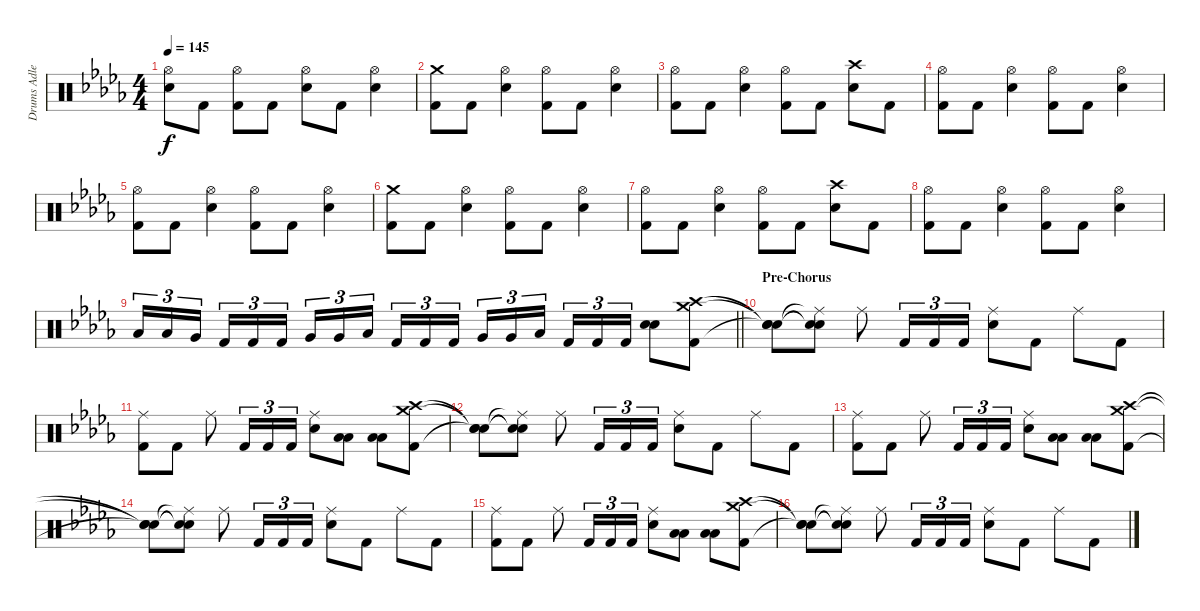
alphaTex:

\track ("Drums Adler" "Drums Adle") {instrument percussion}
\staff {score}
\articulation defaults
\ts (4 4)
\tempo 145
\clef neutral
\ks db
("Hi-Hat (open)" "Snare (hit) 2").8{dy f} "Kick (hit) 2".8 ("Hi-Hat (open)" "Kick (hit) 2").8 "Kick (hit) 2".8 ("Hi-Hat (open)" "Snare (hit) 2").8 "Kick (hit) 2".8 ("Hi-Hat (open)" "Snare (hit) 2").4 |
("Crash medium (hit)" "Kick (hit) 2").8 "Kick (hit) 2".8 ("Hi-Hat (open)" "Snare (hit) 2").4 ("Hi-Hat (open)" "Kick (hit) 2").8 "Kick (hit) 2".8 ("Hi-Hat (open)" "Snare (hit) 2").4 |
("Hi-Hat (open)" "Kick (hit) 2").8 "Kick (hit) 2".8 ("Hi-Hat (open)" "Snare (hit) 2").4 ("Hi-Hat (open)" "Kick (hit) 2").8 "Kick (hit) 2".8 ("Crash high (hit)" "Snare (hit) 2").8 "Kick (hit) 2".8 |
("Hi-Hat (open)" "Kick (hit) 2").8 "Kick (hit) 2".8 ("Hi-Hat (open)" "Snare (hit) 2").4 ("Hi-Hat (open)" "Kick (hit) 2").8 "Kick (hit) 2".8 ("Hi-Hat (open)" "Snare (hit) 2").4 |
("Hi-Hat (open)" "Kick (hit) 2").8 "Kick (hit) 2".8 ("Hi-Hat (open)" "Snare (hit) 2").4 ("Hi-Hat (open)" "Kick (hit) 2").8 "Kick (hit) 2".8 ("Hi-Hat (open)" "Snare (hit) 2").4 |
("Crash medium (hit)" "Kick (hit) 2").8 "Kick (hit) 2".8 ("Hi-Hat (open)" "Snare (hit) 2").4 ("Hi-Hat (open)" "Kick (hit) 2").8 "Kick (hit) 2".8 ("Hi-Hat (open)" "Snare (hit) 2").4 |
("Hi-Hat (open)" "Kick (hit) 2").8 "Kick (hit) 2".8 ("Hi-Hat (open)" "Snare (hit) 2").4 ("Hi-Hat (open)" "Kick (hit) 2").8 "Kick (hit) 2".8 ("Crash high (hit)" "Snare (hit) 2").8 "Kick (hit) 2".8 |
("Hi-Hat (open)" "Kick (hit) 2").8 "Kick (hit) 2".8 ("Hi-Hat (open)" "Snare (hit) 2").4 ("Hi-Hat (open)" "Kick (hit) 2").8 "Kick (hit) 2".8 ("Hi-Hat (open)" "Snare (hit) 2").4 |
\barLineRight lightlight "Low Tom (hit)".16{tu (3 2)} "Low Tom (hit)".16{tu (3 2)} "Very Low Tom (hit)".16{tu (3 2) beam splitsecondary} "Kick (hit) 2".16{tu (3 2)} "Kick (hit) 2".16{tu (3 2)} "Kick (hit) 2".16{tu (3 2)} "Very Low Tom (hit)".16{tu (3 2)} "Very Low Tom (hit)".16{tu (3 2)} "Low Floor Tom (hit)".16{tu (3 2) beam splitsecondary} "Kick (hit) 2".16{tu (3 2)} "Kick (hit) 2".16{tu (3 2)} "Kick (hit) 2".16{tu (3 2)} "Very Low Tom (hit)".16{tu (3 2)} "Very Low Tom (hit)".16{tu (3 2)} "Low Floor Tom (hit)".16{tu (3 2) beam splitsecondary} "Kick (hit) 2".16{tu (3 2)} "Kick (hit) 2".16{tu (3 2)} "Kick (hit) 2".16{tu (3 2)}
("Snare (hit) 2" "Snare (hit) 2").8{bd 60} ("Crash medium (hit)" "Crash high (hit)" "Kick (hit) 2").8 |
\section ("" "Pre-Chorus")
("Snare (hit)"{t} "Snare (hit)"{t} "Snare (hit)"{t}).8 ("Ride (middle)"{t} "Snare (hit)"{t} "Snare (hit)"{t}).8 "Ride (middle)".8 "Kick (hit) 2".16{tu (3 2)} "Kick (hit) 2".16{tu (3 2)} "Kick (hit) 2".16{tu (3 2)} ("Ride (middle)" "Snare (hit) 2").8 "Kick (hit) 2".8 "Ride (middle)".8 "Kick (hit) 2".8 |
("Ride (middle)" "Kick (hit) 2").8 "Kick (hit) 2".8 "Ride (middle)".8 "Kick (hit) 2".16{tu (3 2)} "Kick (hit) 2".16{tu (3 2)} "Kick (hit) 2".16{tu (3 2)} ("Ride (middle)" "Snare (hit) 2").8 ("Low Floor Tom (hit)" "Low Tom (hit)").8 ("Low Floor Tom (hit)" "Low Tom (hit)").8 ("Crash medium (hit)" "Crash high (hit)" "Kick (hit) 2").8 |
("Snare (hit)"{t} "Snare (hit)"{t} "Snare (hit)"{t}).8 ("Ride (middle)"{t} "Snare (hit)"{t} "Snare (hit)"{t}).8 "Ride (middle)".8 "Kick (hit) 2".16{tu (3 2)} "Kick (hit) 2".16{tu (3 2)} "Kick (hit) 2".16{tu (3 2)} ("Ride (middle)" "Snare (hit) 2").8 "Kick (hit) 2".8 "Ride (middle)".8 "Kick (hit) 2".8 |
("Ride (middle)" "Kick (hit) 2").8 "Kick (hit) 2".8 "Ride (middle)".8 "Kick (hit) 2".16{tu (3 2)} "Kick (hit) 2".16{tu (3 2)} "Kick (hit) 2".16{tu (3 2)} ("Ride (middle)" "Snare (hit) 2").8 ("Low Floor Tom (hit)" "Low Tom (hit)").8 ("Low Floor Tom (hit)" "Low Tom (hit)").8 ("Crash medium (hit)" "Crash high (hit)" "Kick (hit) 2").8 |
("Snare (hit)"{t} "Snare (hit)"{t} "Snare (hit)"{t}).8 ("Ride (middle)"{t} "Snare (hit)"{t} "Snare (hit)"{t}).8 "Ride (middle)".8 "Kick (hit) 2".16{tu (3 2)} "Kick (hit) 2".16{tu (3 2)} "Kick (hit) 2".16{tu (3 2)} ("Ride (middle)" "Snare (hit) 2").8 "Kick (hit) 2".8 "Ride (middle)".8 "Kick (hit) 2".8 |
("Ride (middle)" "Kick (hit) 2").8 "Kick (hit) 2".8 "Ride (middle)".8 "Kick (hit) 2".16{tu (3 2)} "Kick (hit) 2".16{tu (3 2)} "Kick (hit) 2".16{tu (3 2)} ("Ride (middle)" "Snare (hit) 2").8 ("Low Floor Tom (hit)" "Low Tom (hit)").8 ("Low Floor Tom (hit)" "Low Tom (hit)").8 ("Crash medium (hit)" "Crash high (hit)" "Kick (hit) 2").8 |
("Snare (hit)"{t} "Snare (hit)"{t} "Snare (hit)"{t}).8 ("Ride (middle)"{t} "Snare (hit)"{t} "Snare (hit)"{t}).8 "Ride (middle)".8 "Kick (hit) 2".16{tu (3 2)} "Kick (hit) 2".16{tu (3 2)} "Kick (hit) 2".16{tu (3 2)} ("Ride (middle)" "Snare (hit) 2").8 "Kick (hit) 2".8 "Ride (middle)".8 "Kick (hit) 2".8
